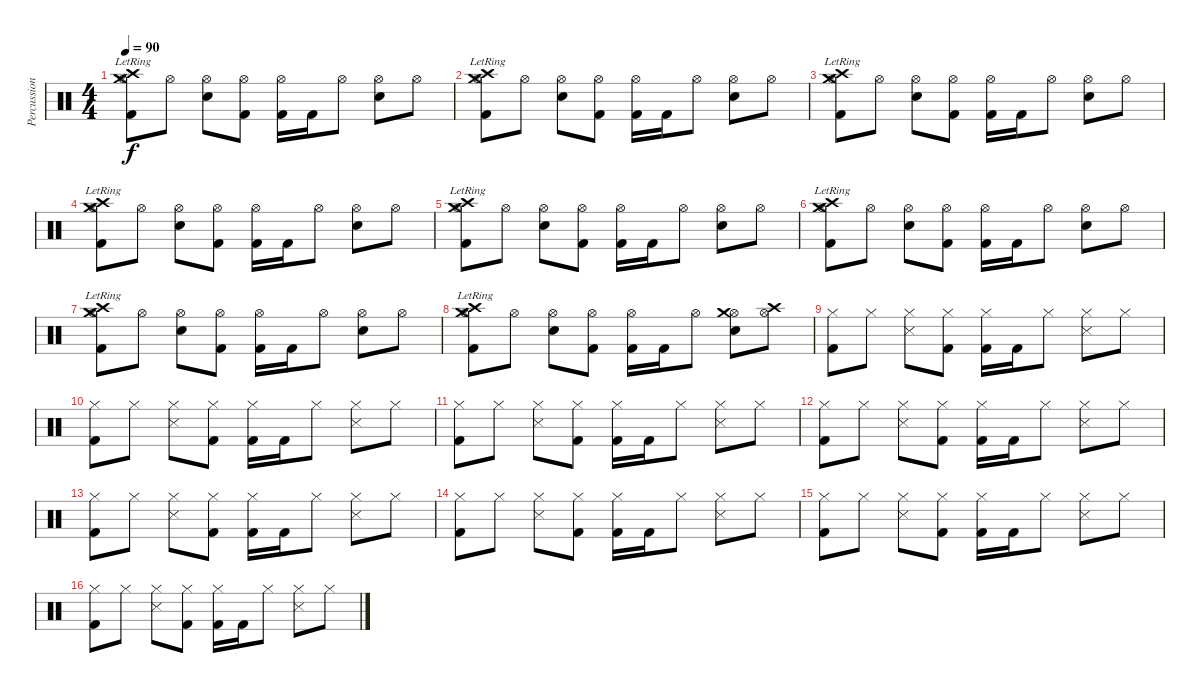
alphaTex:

\track ("Percussions" "Percussion") {instrument percussion}
\staff {score}
\articulation defaults
\ts (4 4)
\tempo 90
\clef neutral
\ks c
("Kick (hit) 2" "Hi-Hat (open)" "Crash medium (hit)"{lr} "Crash high (hit)").8{dy f} "Hi-Hat (open)".8 ("Snare (hit) 2" "Hi-Hat (open)").8 ("Kick (hit) 2" "Hi-Hat (open)").8 ("Kick (hit) 2" "Hi-Hat (open)").16 "Kick (hit) 2".16 "Hi-Hat (open)".8 ("Snare (hit) 2" "Hi-Hat (open)").8 "Hi-Hat (open)".8 |
("Kick (hit) 2" "Hi-Hat (open)" "Crash medium (hit)"{lr} "Crash high (hit)").8 "Hi-Hat (open)".8 ("Snare (hit) 2" "Hi-Hat (open)").8 ("Kick (hit) 2" "Hi-Hat (open)").8 ("Kick (hit) 2" "Hi-Hat (open)").16 "Kick (hit) 2".16 "Hi-Hat (open)".8 ("Snare (hit) 2" "Hi-Hat (open)").8 "Hi-Hat (open)".8 |
("Kick (hit) 2" "Hi-Hat (open)" "Crash medium (hit)"{lr} "Crash high (hit)").8 "Hi-Hat (open)".8 ("Snare (hit) 2" "Hi-Hat (open)").8 ("Kick (hit) 2" "Hi-Hat (open)").8 ("Kick (hit) 2" "Hi-Hat (open)").16 "Kick (hit) 2".16 "Hi-Hat (open)".8 ("Snare (hit) 2" "Hi-Hat (open)").8 "Hi-Hat (open)".8 |
("Kick (hit) 2" "Hi-Hat (open)" "Crash medium (hit)"{lr} "Crash high (hit)").8 "Hi-Hat (open)".8 ("Snare (hit) 2" "Hi-Hat (open)").8 ("Kick (hit) 2" "Hi-Hat (open)").8 ("Kick (hit) 2" "Hi-Hat (open)").16 "Kick (hit) 2".16 "Hi-Hat (open)".8 ("Snare (hit) 2" "Hi-Hat (open)").8 "Hi-Hat (open)".8 |
("Kick (hit) 2" "Hi-Hat (open)" "Crash medium (hit)"{lr} "Crash high (hit)").8 "Hi-Hat (open)".8 ("Snare (hit) 2" "Hi-Hat (open)").8 ("Kick (hit) 2" "Hi-Hat (open)").8 ("Kick (hit) 2" "Hi-Hat (open)").16 "Kick (hit) 2".16 "Hi-Hat (open)".8 ("Snare (hit) 2" "Hi-Hat (open)").8 "Hi-Hat (open)".8 |
("Kick (hit) 2" "Hi-Hat (open)" "Crash medium (hit)"{lr} "Crash high (hit)").8 "Hi-Hat (open)".8 ("Snare (hit) 2" "Hi-Hat (open)").8 ("Kick (hit) 2" "Hi-Hat (open)").8 ("Kick (hit) 2" "Hi-Hat (open)").16 "Kick (hit) 2".16 "Hi-Hat (open)".8 ("Snare (hit) 2" "Hi-Hat (open)").8 "Hi-Hat (open)".8 |
("Kick (hit) 2" "Hi-Hat (open)" "Crash medium (hit)"{lr} "Crash high (hit)").8 "Hi-Hat (open)".8 ("Snare (hit) 2" "Hi-Hat (open)").8 ("Kick (hit) 2" "Hi-Hat (open)").8 ("Kick (hit) 2" "Hi-Hat (open)").16 "Kick (hit) 2".16 "Hi-Hat (open)".8 ("Snare (hit) 2" "Hi-Hat (open)").8 "Hi-Hat (open)".8 |
("Kick (hit) 2" "Hi-Hat (open)" "Crash medium (hit)"{lr} "Crash high (hit)").8 "Hi-Hat (open)".8 ("Snare (hit) 2" "Hi-Hat (open)").8 ("Kick (hit) 2" "Hi-Hat (open)").8 ("Kick (hit) 2" "Hi-Hat (open)").16 "Kick (hit) 2".16 "Hi-Hat (open)".8 ("Snare (hit) 2" "Hi-Hat (open)" "Crash medium (hit)").8 ("Hi-Hat (open)" "Crash high (hit)").8 |
("Kick (hit) 2" "Hi-Hat (closed)").8 "Hi-Hat (closed)".8 ("Snare (side stick) 3" "Hi-Hat (closed)").8 ("Kick (hit) 2" "Hi-Hat (closed)").8 ("Kick (hit) 2" "Hi-Hat (closed)").16 "Kick (hit) 2".16 "Hi-Hat (closed)".8 ("Snare (side stick) 3" "Hi-Hat (closed)").8 "Hi-Hat (closed)".8 |
("Kick (hit) 2" "Hi-Hat (closed)").8 "Hi-Hat (closed)".8 ("Snare (side stick) 3" "Hi-Hat (closed)").8 ("Kick (hit) 2" "Hi-Hat (closed)").8 ("Kick (hit) 2" "Hi-Hat (closed)").16 "Kick (hit) 2".16 "Hi-Hat (closed)".8 ("Snare (side stick) 3" "Hi-Hat (closed)").8 "Hi-Hat (closed)".8 |
("Kick (hit) 2" "Hi-Hat (closed)").8 "Hi-Hat (closed)".8 ("Snare (side stick) 3" "Hi-Hat (closed)").8 ("Kick (hit) 2" "Hi-Hat (closed)").8 ("Kick (hit) 2" "Hi-Hat (closed)").16 "Kick (hit) 2".16 "Hi-Hat (closed)".8 ("Snare (side stick) 3" "Hi-Hat (closed)").8 "Hi-Hat (closed)".8 |
("Kick (hit) 2" "Hi-Hat (closed)").8 "Hi-Hat (closed)".8 ("Snare (side stick) 3" "Hi-Hat (closed)").8 ("Kick (hit) 2" "Hi-Hat (closed)").8 ("Kick (hit) 2" "Hi-Hat (closed)").16 "Kick (hit) 2".16 "Hi-Hat (closed)".8 ("Snare (side stick) 3" "Hi-Hat (closed)").8 "Hi-Hat (closed)".8 |
("Kick (hit) 2" "Hi-Hat (closed)").8 "Hi-Hat (closed)".8 ("Snare (side stick) 3" "Hi-Hat (closed)").8 ("Kick (hit) 2" "Hi-Hat (closed)").8 ("Kick (hit) 2" "Hi-Hat (closed)").16 "Kick (hit) 2".16 "Hi-Hat (closed)".8 ("Snare (side stick) 3" "Hi-Hat (closed)").8 "Hi-Hat (closed)".8 |
("Kick (hit) 2" "Hi-Hat (closed)").8 "Hi-Hat (closed)".8 ("Snare (side stick) 3" "Hi-Hat (closed)").8 ("Kick (hit) 2" "Hi-Hat (closed)").8 ("Kick (hit) 2" "Hi-Hat (closed)").16 "Kick (hit) 2".16 "Hi-Hat (closed)".8 ("Snare (side stick) 3" "Hi-Hat (closed)").8 "Hi-Hat (closed)".8 |
("Kick (hit) 2" "Hi-Hat (closed)").8 "Hi-Hat (closed)".8 ("Snare (side stick) 3" "Hi-Hat (closed)").8 ("Kick (hit) 2" "Hi-Hat (closed)").8 ("Kick (hit) 2" "Hi-Hat (closed)").16 "Kick (hit) 2".16 "Hi-Hat (closed)".8 ("Snare (side stick) 3" "Hi-Hat (closed)").8 "Hi-Hat (closed)".8 |
("Kick (hit) 2" "Hi-Hat (closed)").8 "Hi-Hat (closed)".8 ("Snare (side stick) 3" "Hi-Hat (closed)").8 ("Kick (hit) 2" "Hi-Hat (closed)").8 ("Kick (hit) 2" "Hi-Hat (closed)").16 "Kick (hit) 2".16 "Hi-Hat (closed)".8 ("Snare (side stick) 3" "Hi-Hat (closed)").8 "Hi-Hat (closed)".8
